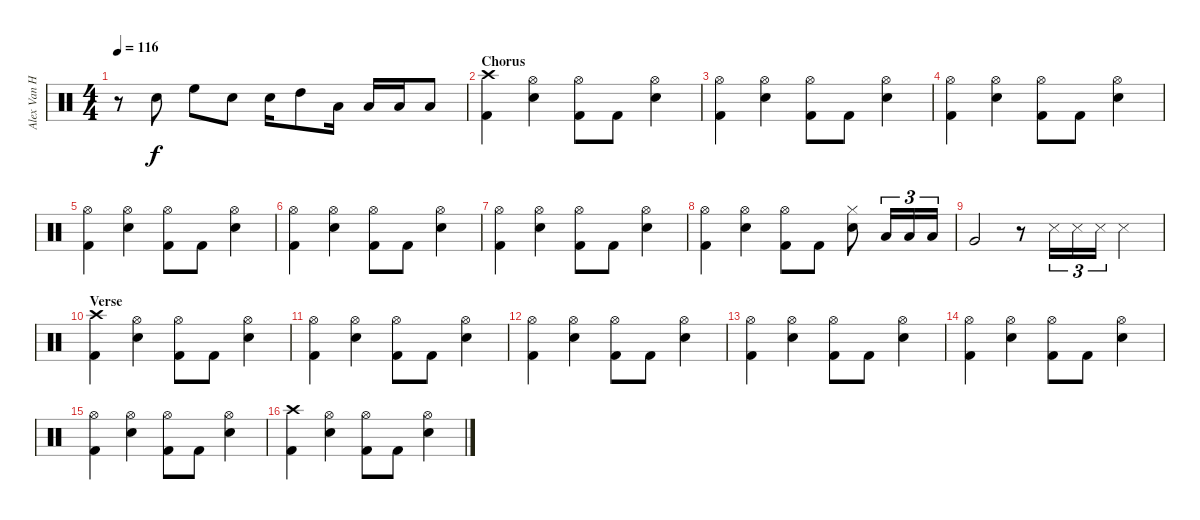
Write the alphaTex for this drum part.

\track ("Alex Van Halen" "Alex Van H") {instrument percussion}
\staff {score}
\articulation defaults
\ts (4 4)
\tempo 116
\clef neutral
\ks c
r.8{dy f} "Electric Snare (hit)".8 "High Floor Tom (hit)".8 "Electric Snare (hit)".8 "Electric Snare (hit)".16 "High Tom (hit)".8 "Low Tom (hit)".16 "Low Tom (hit)".16 "Low Floor Tom (hit)".16 "Low Floor Tom (hit)".8 |
\section ("" "Chorus")
("Crash high (hit)" "Kick (hit) 2").4 ("Hi-Hat (open)" "Electric Snare (hit)").4 ("Hi-Hat (open)" "Kick (hit) 2").8 "Kick (hit) 2".8 ("Hi-Hat (open)" "Electric Snare (hit)").4 |
("Hi-Hat (open)" "Kick (hit) 2").4 ("Hi-Hat (open)" "Electric Snare (hit)").4 ("Hi-Hat (open)" "Kick (hit) 2").8 "Kick (hit) 2".8 ("Hi-Hat (open)" "Electric Snare (hit)").4 |
("Hi-Hat (open)" "Kick (hit) 2").4 ("Hi-Hat (open)" "Electric Snare (hit)").4 ("Hi-Hat (open)" "Kick (hit) 2").8 "Kick (hit) 2".8 ("Hi-Hat (open)" "Electric Snare (hit)").4 |
("Hi-Hat (open)" "Kick (hit) 2").4 ("Hi-Hat (open)" "Electric Snare (hit)").4 ("Hi-Hat (open)" "Kick (hit) 2").8 "Kick (hit) 2".8 ("Hi-Hat (open)" "Electric Snare (hit)").4 |
("Hi-Hat (open)" "Kick (hit) 2").4 ("Hi-Hat (open)" "Electric Snare (hit)").4 ("Hi-Hat (open)" "Kick (hit) 2").8 "Kick (hit) 2".8 ("Hi-Hat (open)" "Electric Snare (hit)").4 |
("Hi-Hat (open)" "Kick (hit) 2").4 ("Hi-Hat (open)" "Electric Snare (hit)").4 ("Hi-Hat (open)" "Kick (hit) 2").8 "Kick (hit) 2".8 ("Hi-Hat (open)" "Electric Snare (hit)").4 |
("Hi-Hat (open)" "Kick (hit) 2").4 ("Hi-Hat (open)" "Electric Snare (hit)").4 ("Hi-Hat (open)" "Kick (hit) 2").8 "Kick (hit) 2".8 ("Hi-Hat (closed)" "Electric Snare (hit)").8 "Low Tom (hit)".16{tu (3 2)} "Low Tom (hit)".16{tu (3 2)} "Low Tom (hit)".16{tu (3 2)} |
"Very Low Tom (hit)".2 r.8 "Snare (side stick) 3".16{tu (3 2)} "Snare (side stick) 3".16{tu (3 2)} "Snare (side stick) 3".16{tu (3 2)} "Snare (side stick) 3".4 |
\section ("" "Verse")
("Crash high (hit)" "Kick (hit) 2").4 ("Hi-Hat (open)" "Electric Snare (hit)").4 ("Hi-Hat (open)" "Kick (hit) 2").8 "Kick (hit) 2".8 ("Hi-Hat (open)" "Electric Snare (hit)").4 |
("Hi-Hat (open)" "Kick (hit) 2").4 ("Hi-Hat (open)" "Electric Snare (hit)").4 ("Hi-Hat (open)" "Kick (hit) 2").8 "Kick (hit) 2".8 ("Hi-Hat (open)" "Electric Snare (hit)").4 |
("Hi-Hat (open)" "Kick (hit) 2").4 ("Hi-Hat (open)" "Electric Snare (hit)").4 ("Hi-Hat (open)" "Kick (hit) 2").8 "Kick (hit) 2".8 ("Hi-Hat (open)" "Electric Snare (hit)").4 |
("Hi-Hat (open)" "Kick (hit) 2").4 ("Hi-Hat (open)" "Electric Snare (hit)").4 ("Hi-Hat (open)" "Kick (hit) 2").8 "Kick (hit) 2".8 ("Hi-Hat (open)" "Electric Snare (hit)").4 |
("Hi-Hat (open)" "Kick (hit) 2").4 ("Hi-Hat (open)" "Electric Snare (hit)").4 ("Hi-Hat (open)" "Kick (hit) 2").8 "Kick (hit) 2".8 ("Hi-Hat (open)" "Electric Snare (hit)").4 |
("Hi-Hat (open)" "Kick (hit) 2").4 ("Hi-Hat (open)" "Electric Snare (hit)").4 ("Hi-Hat (open)" "Kick (hit) 2").8 "Kick (hit) 2".8 ("Hi-Hat (open)" "Electric Snare (hit)").4 |
("Crash high (hit)" "Kick (hit) 2").4 ("Hi-Hat (open)" "Electric Snare (hit)").4 ("Hi-Hat (open)" "Kick (hit) 2").8 "Kick (hit) 2".8 ("Hi-Hat (open)" "Electric Snare (hit)").4
